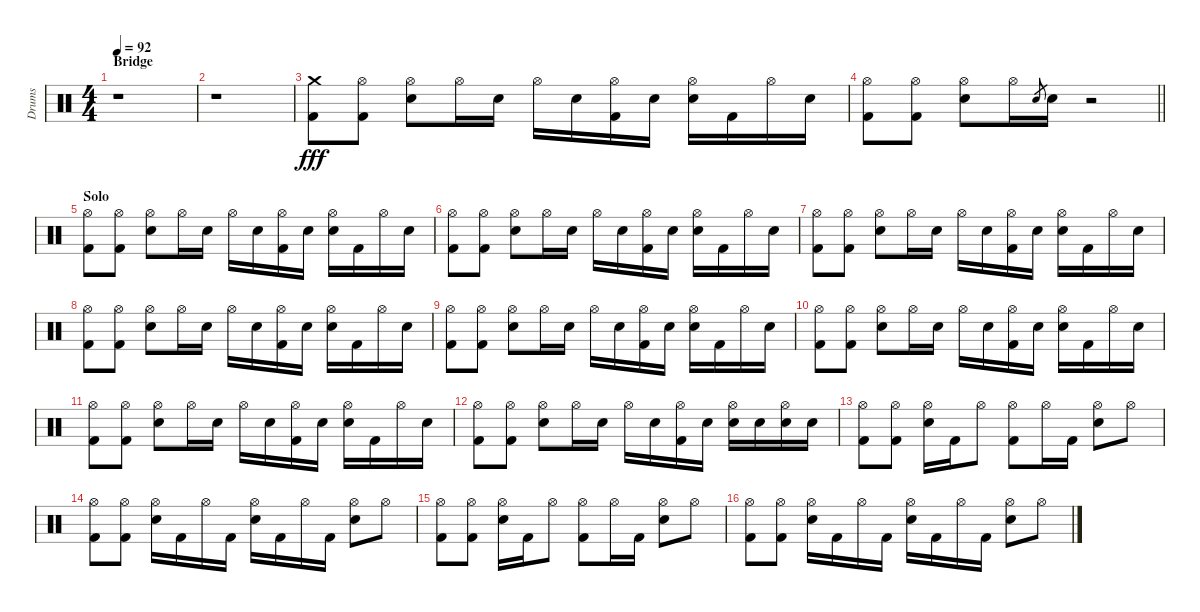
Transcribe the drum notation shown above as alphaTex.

\track ("Drums" "Drums") {instrument percussion}
\staff {score}
\articulation defaults
\ts (4 4)
\section ("" "Bridge")
\tempo 92
\clef neutral
\ks c
r.1{dy fff} |
r.1 |
("Crash medium (hit)" "Kick (hit) 2").8 ("Hi-Hat (open)" "Kick (hit) 2").8 ("Hi-Hat (open)" "Snare (hit) 2").8 "Hi-Hat (open)".16 "Snare (hit) 2".16 "Hi-Hat (open)".16 "Snare (hit) 2".16 ("Hi-Hat (open)" "Kick (hit) 2").16 "Snare (hit) 2".16 ("Hi-Hat (open)" "Snare (hit) 2").16 "Kick (hit) 2".16 "Hi-Hat (open)".16 "Snare (hit) 2".16 |
\barLineRight lightlight
("Hi-Hat (open)" "Kick (hit) 2").8 ("Hi-Hat (open)" "Kick (hit) 2").8 ("Hi-Hat (open)" "Snare (hit) 2").8 "Hi-Hat (open)".16 "Snare (hit) 2".8{gr} "Snare (hit) 2".16 r.2 |
\section ("" "Solo")
("Hi-Hat (open)" "Kick (hit) 2").8 ("Hi-Hat (open)" "Kick (hit) 2").8 ("Hi-Hat (open)" "Snare (hit) 2").8 "Hi-Hat (open)".16 "Snare (hit) 2".16 "Hi-Hat (open)".16 "Snare (hit) 2".16 ("Hi-Hat (open)" "Kick (hit) 2").16 "Snare (hit) 2".16 ("Hi-Hat (open)" "Snare (hit) 2").16 "Kick (hit) 2".16 "Hi-Hat (open)".16 "Snare (hit) 2".16 |
("Hi-Hat (open)" "Kick (hit) 2").8 ("Hi-Hat (open)" "Kick (hit) 2").8 ("Hi-Hat (open)" "Snare (hit) 2").8 "Hi-Hat (open)".16 "Snare (hit) 2".16 "Hi-Hat (open)".16 "Snare (hit) 2".16 ("Hi-Hat (open)" "Kick (hit) 2").16 "Snare (hit) 2".16 ("Hi-Hat (open)" "Snare (hit) 2").16 "Kick (hit) 2".16 "Hi-Hat (open)".16 "Snare (hit) 2".16 |
("Hi-Hat (open)" "Kick (hit) 2").8 ("Hi-Hat (open)" "Kick (hit) 2").8 ("Hi-Hat (open)" "Snare (hit) 2").8 "Hi-Hat (open)".16 "Snare (hit) 2".16 "Hi-Hat (open)".16 "Snare (hit) 2".16 ("Hi-Hat (open)" "Kick (hit) 2").16 "Snare (hit) 2".16 ("Hi-Hat (open)" "Snare (hit) 2").16 "Kick (hit) 2".16 "Hi-Hat (open)".16 "Snare (hit) 2".16 |
("Hi-Hat (open)" "Kick (hit) 2").8 ("Hi-Hat (open)" "Kick (hit) 2").8 ("Hi-Hat (open)" "Snare (hit) 2").8 "Hi-Hat (open)".16 "Snare (hit) 2".16 "Hi-Hat (open)".16 "Snare (hit) 2".16 ("Hi-Hat (open)" "Kick (hit) 2").16 "Snare (hit) 2".16 ("Hi-Hat (open)" "Snare (hit) 2").16 "Kick (hit) 2".16 "Hi-Hat (open)".16 "Snare (hit) 2".16 |
("Hi-Hat (open)" "Kick (hit) 2").8 ("Hi-Hat (open)" "Kick (hit) 2").8 ("Hi-Hat (open)" "Snare (hit) 2").8 "Hi-Hat (open)".16 "Snare (hit) 2".16 "Hi-Hat (open)".16 "Snare (hit) 2".16 ("Hi-Hat (open)" "Kick (hit) 2").16 "Snare (hit) 2".16 ("Hi-Hat (open)" "Snare (hit) 2").16 "Kick (hit) 2".16 "Hi-Hat (open)".16 "Snare (hit) 2".16 |
("Hi-Hat (open)" "Kick (hit) 2").8 ("Hi-Hat (open)" "Kick (hit) 2").8 ("Hi-Hat (open)" "Snare (hit) 2").8 "Hi-Hat (open)".16 "Snare (hit) 2".16 "Hi-Hat (open)".16 "Snare (hit) 2".16 ("Hi-Hat (open)" "Kick (hit) 2").16 "Snare (hit) 2".16 ("Hi-Hat (open)" "Snare (hit) 2").16 "Kick (hit) 2".16 "Hi-Hat (open)".16 "Snare (hit) 2".16 |
("Hi-Hat (open)" "Kick (hit) 2").8 ("Hi-Hat (open)" "Kick (hit) 2").8 ("Hi-Hat (open)" "Snare (hit) 2").8 "Hi-Hat (open)".16 "Snare (hit) 2".16 "Hi-Hat (open)".16 "Snare (hit) 2".16 ("Hi-Hat (open)" "Kick (hit) 2").16 "Snare (hit) 2".16 ("Hi-Hat (open)" "Snare (hit) 2").16 "Kick (hit) 2".16 "Hi-Hat (open)".16 "Snare (hit) 2".16 |
("Hi-Hat (open)" "Kick (hit) 2").8 ("Hi-Hat (open)" "Kick (hit) 2").8 ("Hi-Hat (open)" "Snare (hit) 2").8 "Hi-Hat (open)".16 "Snare (hit) 2".16 "Hi-Hat (open)".16 "Snare (hit) 2".16 ("Hi-Hat (open)" "Kick (hit) 2").16 "Snare (hit) 2".16 ("Hi-Hat (open)" "Snare (hit) 2").16 "Snare (hit) 2".16 ("Hi-Hat (open)" "Snare (hit) 2").16 "Snare (hit) 2".16 |
("Hi-Hat (open)" "Kick (hit) 2").8 ("Hi-Hat (open)" "Kick (hit) 2").8 ("Hi-Hat (open)" "Snare (hit) 2").16 "Kick (hit) 2".16 "Hi-Hat (open)".8 ("Hi-Hat (open)" "Kick (hit) 2").8 "Hi-Hat (open)".16 "Kick (hit) 2".16 ("Hi-Hat (open)" "Snare (hit) 2").8 "Hi-Hat (open)".8 |
("Hi-Hat (open)" "Kick (hit) 2").8 ("Hi-Hat (open)" "Kick (hit) 2").8 ("Hi-Hat (open)" "Snare (hit) 2").16 "Kick (hit) 2".16 "Hi-Hat (open)".16 "Kick (hit) 2".16 ("Hi-Hat (open)" "Snare (hit) 2").16 "Kick (hit) 2".16 "Hi-Hat (open)".16 "Kick (hit) 2".16 ("Hi-Hat (open)" "Snare (hit) 2").8 "Hi-Hat (open)".8 |
("Hi-Hat (open)" "Kick (hit) 2").8 ("Hi-Hat (open)" "Kick (hit) 2").8 ("Hi-Hat (open)" "Snare (hit) 2").16 "Kick (hit) 2".16 "Hi-Hat (open)".8 ("Hi-Hat (open)" "Kick (hit) 2").8 "Hi-Hat (open)".16 "Kick (hit) 2".16 ("Hi-Hat (open)" "Snare (hit) 2").8 "Hi-Hat (open)".8 |
("Hi-Hat (open)" "Kick (hit) 2").8 ("Hi-Hat (open)" "Kick (hit) 2").8 ("Hi-Hat (open)" "Snare (hit) 2").16 "Kick (hit) 2".16 "Hi-Hat (open)".16 "Kick (hit) 2".16 ("Hi-Hat (open)" "Snare (hit) 2").16 "Kick (hit) 2".16 "Hi-Hat (open)".16 "Kick (hit) 2".16 ("Hi-Hat (open)" "Snare (hit) 2").8 "Hi-Hat (open)".8
